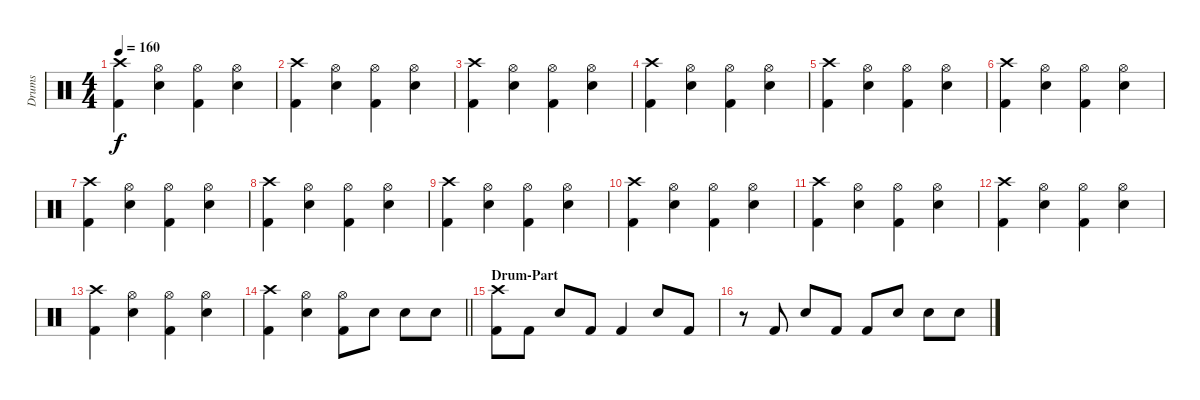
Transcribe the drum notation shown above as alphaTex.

\track ("Drums" "Drums") {instrument percussion}
\staff {score}
\articulation defaults
\ts (4 4)
\tempo 160
\clef neutral
\ks c
("Crash high (hit)" "Kick (hit) 2").4{dy f} ("Hi-Hat (open)" "Electric Snare (hit)").4 ("Hi-Hat (open)" "Kick (hit) 2").4 ("Hi-Hat (open)" "Electric Snare (hit)").4 |
("Crash high (hit)" "Kick (hit) 2").4 ("Hi-Hat (open)" "Electric Snare (hit)").4 ("Hi-Hat (open)" "Kick (hit) 2").4 ("Hi-Hat (open)" "Electric Snare (hit)").4 |
("Crash high (hit)" "Kick (hit) 2").4 ("Hi-Hat (open)" "Electric Snare (hit)").4 ("Hi-Hat (open)" "Kick (hit) 2").4 ("Hi-Hat (open)" "Electric Snare (hit)").4 |
("Crash high (hit)" "Kick (hit) 2").4 ("Hi-Hat (open)" "Electric Snare (hit)").4 ("Hi-Hat (open)" "Kick (hit) 2").4 ("Hi-Hat (open)" "Electric Snare (hit)").4 |
("Crash high (hit)" "Kick (hit) 2").4 ("Hi-Hat (open)" "Electric Snare (hit)").4 ("Hi-Hat (open)" "Kick (hit) 2").4 ("Hi-Hat (open)" "Electric Snare (hit)").4 |
("Crash high (hit)" "Kick (hit) 2").4 ("Hi-Hat (open)" "Electric Snare (hit)").4 ("Hi-Hat (open)" "Kick (hit) 2").4 ("Hi-Hat (open)" "Electric Snare (hit)").4 |
("Crash high (hit)" "Kick (hit) 2").4 ("Hi-Hat (open)" "Electric Snare (hit)").4 ("Hi-Hat (open)" "Kick (hit) 2").4 ("Hi-Hat (open)" "Electric Snare (hit)").4 |
("Crash high (hit)" "Kick (hit) 2").4 ("Hi-Hat (open)" "Electric Snare (hit)").4 ("Hi-Hat (open)" "Kick (hit) 2").4 ("Hi-Hat (open)" "Electric Snare (hit)").4 |
("Crash high (hit)" "Kick (hit) 2").4 ("Hi-Hat (open)" "Electric Snare (hit)").4 ("Hi-Hat (open)" "Kick (hit) 2").4 ("Hi-Hat (open)" "Electric Snare (hit)").4 |
("Crash high (hit)" "Kick (hit) 2").4 ("Hi-Hat (open)" "Electric Snare (hit)").4 ("Hi-Hat (open)" "Kick (hit) 2").4 ("Hi-Hat (open)" "Electric Snare (hit)").4 |
("Crash high (hit)" "Kick (hit) 2").4 ("Hi-Hat (open)" "Electric Snare (hit)").4 ("Hi-Hat (open)" "Kick (hit) 2").4 ("Hi-Hat (open)" "Electric Snare (hit)").4 |
("Crash high (hit)" "Kick (hit) 2").4 ("Hi-Hat (open)" "Electric Snare (hit)").4 ("Hi-Hat (open)" "Kick (hit) 2").4 ("Hi-Hat (open)" "Electric Snare (hit)").4 |
("Crash high (hit)" "Kick (hit) 2").4 ("Hi-Hat (open)" "Electric Snare (hit)").4 ("Hi-Hat (open)" "Kick (hit) 2").4 ("Hi-Hat (open)" "Electric Snare (hit)").4 |
\barLineRight lightlight
("Crash high (hit)" "Kick (hit) 2").4 ("Hi-Hat (open)" "Electric Snare (hit)").4 ("Hi-Hat (open)" "Kick (hit) 2").8 "Electric Snare (hit)".8 "Electric Snare (hit)".8 "Electric Snare (hit)".8 |
\section ("" "Drum-Part")
("Crash high (hit)" "Kick (hit) 2").8 "Kick (hit) 2".8 "Electric Snare (hit)".8 "Kick (hit) 2".8 "Kick (hit) 2".4 "Electric Snare (hit)".8 "Kick (hit) 2".8 |
r.8 "Kick (hit) 2".8 "Electric Snare (hit)".8 "Kick (hit) 2".8 "Kick (hit) 2".8 "Electric Snare (hit)".8 "Electric Snare (hit)".8 "Electric Snare (hit)".8
